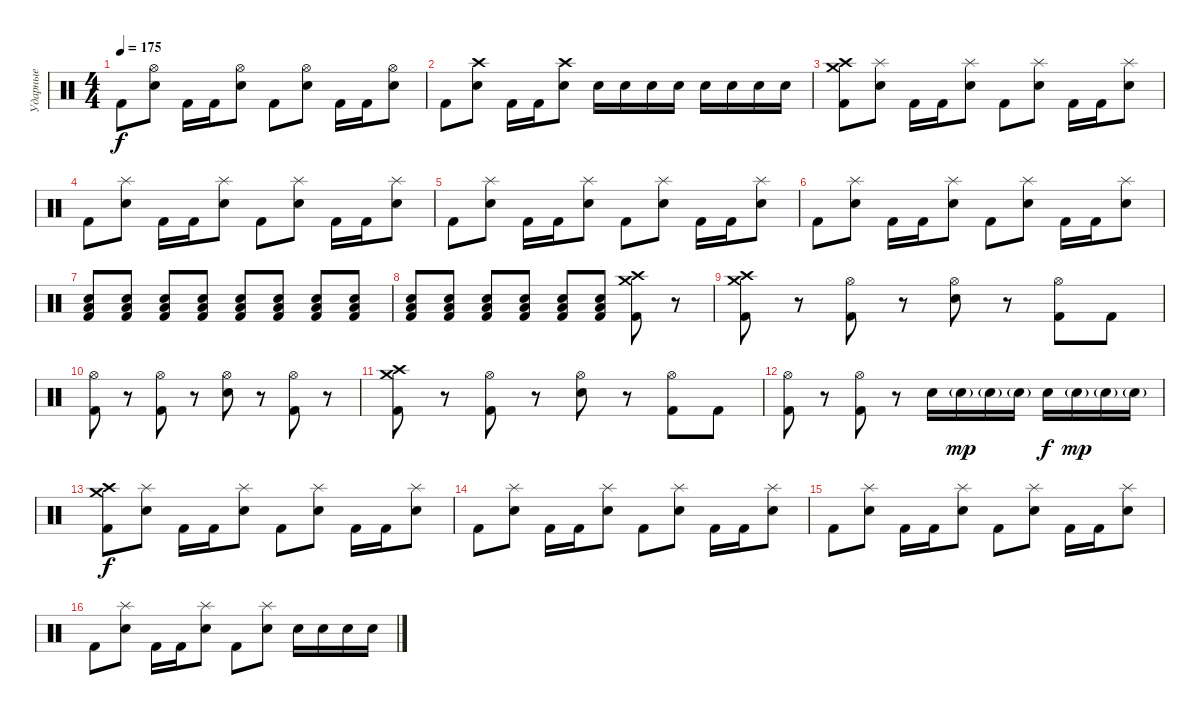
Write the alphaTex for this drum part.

\track ("Ударные" "Ударные") {instrument percussion}
\staff {score}
\articulation defaults
\ts (4 4)
\tempo 175
\clef neutral
\ks c "Kick (hit) 2".8{dy f}
("Hi-Hat (open)" "Electric Snare (hit)").8 "Kick (hit) 2".16 "Kick (hit) 2".16 ("Hi-Hat (open)" "Electric Snare (hit)").8 "Kick (hit) 2".8 ("Hi-Hat (open)" "Electric Snare (hit)").8 "Kick (hit) 2".16 "Kick (hit) 2".16 ("Hi-Hat (open)" "Electric Snare (hit)").8 |
"Kick (hit) 2".8 ("Crash high (hit)" "Electric Snare (hit)").8 "Kick (hit) 2".16 "Kick (hit) 2".16 ("Crash high (hit)" "Electric Snare (hit)").8 "Electric Snare (hit)".16 "Electric Snare (hit)".16 "Electric Snare (hit)".16 "Electric Snare (hit)".16 "Electric Snare (hit)".16 "Electric Snare (hit)".16 "Electric Snare (hit)".16 "Electric Snare (hit)".16 |
("Crash medium (hit)" "Crash high (hit)" "Kick (hit) 2").8 ("Splash (hit)" "Electric Snare (hit)").8 "Kick (hit) 2".16 "Kick (hit) 2".16 ("Splash (hit)" "Electric Snare (hit)").8 "Kick (hit) 2".8 ("Splash (hit)" "Electric Snare (hit)").8 "Kick (hit) 2".16 "Kick (hit) 2".16 ("Splash (hit)" "Electric Snare (hit)").8 |
"Kick (hit) 2".8 ("Splash (hit)" "Electric Snare (hit)").8 "Kick (hit) 2".16 "Kick (hit) 2".16 ("Splash (hit)" "Electric Snare (hit)").8 "Kick (hit) 2".8 ("Splash (hit)" "Electric Snare (hit)").8 "Kick (hit) 2".16 "Kick (hit) 2".16 ("Splash (hit)" "Electric Snare (hit)").8 |
"Kick (hit) 2".8 ("Splash (hit)" "Electric Snare (hit)").8 "Kick (hit) 2".16 "Kick (hit) 2".16 ("Splash (hit)" "Electric Snare (hit)").8 "Kick (hit) 2".8 ("Splash (hit)" "Electric Snare (hit)").8 "Kick (hit) 2".16 "Kick (hit) 2".16 ("Splash (hit)" "Electric Snare (hit)").8 |
"Kick (hit) 2".8 ("Splash (hit)" "Electric Snare (hit)").8 "Kick (hit) 2".16 "Kick (hit) 2".16 ("Splash (hit)" "Electric Snare (hit)").8 "Kick (hit) 2".8 ("Splash (hit)" "Electric Snare (hit)").8 "Kick (hit) 2".16 "Kick (hit) 2".16 ("Splash (hit)" "Electric Snare (hit)").8 |
("Low Tom (hit)" "Kick (hit) 2" "Electric Snare (hit)").8 ("Low Tom (hit)" "Kick (hit) 2" "Electric Snare (hit)").8 ("Low Tom (hit)" "Kick (hit) 2" "Electric Snare (hit)").8 ("Low Tom (hit)" "Kick (hit) 2" "Electric Snare (hit)").8 ("Low Tom (hit)" "Kick (hit) 2" "Electric Snare (hit)").8 ("Low Tom (hit)" "Kick (hit) 2" "Electric Snare (hit)").8 ("Low Tom (hit)" "Kick (hit) 2" "Electric Snare (hit)").8 ("Low Tom (hit)" "Kick (hit) 2" "Electric Snare (hit)").8 |
("Low Tom (hit)" "Kick (hit) 2" "Electric Snare (hit)").8 ("Low Tom (hit)" "Kick (hit) 2" "Electric Snare (hit)").8 ("Low Tom (hit)" "Kick (hit) 2" "Electric Snare (hit)").8 ("Low Tom (hit)" "Kick (hit) 2" "Electric Snare (hit)").8 ("Low Tom (hit)" "Kick (hit) 2" "Electric Snare (hit)").8 ("Low Tom (hit)" "Kick (hit) 2" "Electric Snare (hit)").8 ("Crash medium (hit)" "Crash high (hit)" "Kick (hit) 2").8 r.8 |
("Crash medium (hit)" "Crash high (hit)" "Kick (hit) 2").8 r.8 ("Hi-Hat (open)" "Kick (hit) 2").8 r.8 ("Hi-Hat (open)" "Electric Snare (hit)").8 r.8 ("Hi-Hat (open)" "Kick (hit) 2").8 "Kick (hit) 2".8 |
("Hi-Hat (open)" "Kick (hit) 2").8 r.8 ("Hi-Hat (open)" "Kick (hit) 2").8 r.8 ("Hi-Hat (open)" "Electric Snare (hit)").8 r.8 ("Hi-Hat (open)" "Kick (hit) 2").8 r.8 |
("Crash medium (hit)" "Crash high (hit)" "Kick (hit) 2").8 r.8 ("Hi-Hat (open)" "Kick (hit) 2").8 r.8 ("Hi-Hat (open)" "Electric Snare (hit)").8 r.8 ("Hi-Hat (open)" "Kick (hit) 2").8 "Kick (hit) 2".8 |
("Hi-Hat (open)" "Kick (hit) 2").8 r.8 ("Hi-Hat (open)" "Kick (hit) 2").8 r.8 "Electric Snare (hit)".16 "Electric Snare (hit)"{g}.16{dy mp} "Electric Snare (hit)"{g}.16 "Electric Snare (hit)"{g}.16 "Electric Snare (hit)".16{dy f} "Electric Snare (hit)"{g}.16{dy mp} "Electric Snare (hit)"{g}.16 "Electric Snare (hit)"{g}.16 |
("Crash medium (hit)" "Crash high (hit)" "Kick (hit) 2").8{dy f} ("Splash (hit)" "Electric Snare (hit)").8 "Kick (hit) 2".16 "Kick (hit) 2".16 ("Splash (hit)" "Electric Snare (hit)").8 "Kick (hit) 2".8 ("Splash (hit)" "Electric Snare (hit)").8 "Kick (hit) 2".16 "Kick (hit) 2".16 ("Splash (hit)" "Electric Snare (hit)").8 |
"Kick (hit) 2".8 ("Splash (hit)" "Electric Snare (hit)").8 "Kick (hit) 2".16 "Kick (hit) 2".16 ("Splash (hit)" "Electric Snare (hit)").8 "Kick (hit) 2".8 ("Splash (hit)" "Electric Snare (hit)").8 "Kick (hit) 2".16 "Kick (hit) 2".16 ("Splash (hit)" "Electric Snare (hit)").8 |
"Kick (hit) 2".8 ("Splash (hit)" "Electric Snare (hit)").8 "Kick (hit) 2".16 "Kick (hit) 2".16 ("Splash (hit)" "Electric Snare (hit)").8 "Kick (hit) 2".8 ("Splash (hit)" "Electric Snare (hit)").8 "Kick (hit) 2".16 "Kick (hit) 2".16 ("Splash (hit)" "Electric Snare (hit)").8 |
"Kick (hit) 2".8 ("Splash (hit)" "Electric Snare (hit)").8 "Kick (hit) 2".16 "Kick (hit) 2".16 ("Splash (hit)" "Electric Snare (hit)").8 "Kick (hit) 2".8 ("Splash (hit)" "Electric Snare (hit)").8 "Electric Snare (hit)".16 "Electric Snare (hit)".16 "Electric Snare (hit)".16 "Electric Snare (hit)".16
